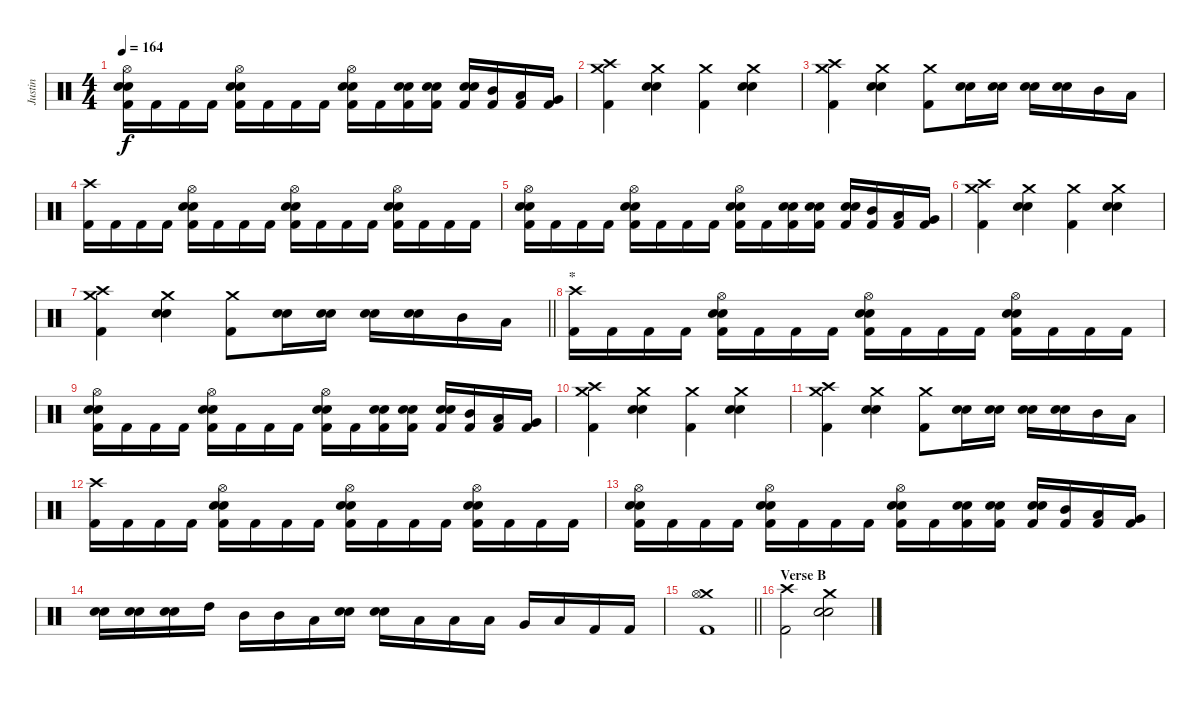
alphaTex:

\track ("Justin" "Justin") {instrument percussion}
\staff {score}
\articulation defaults
\ts (4 4)
\tempo 164
\clef neutral
\ks c
("Hi-Hat (open)" "Electric Snare (hit)" "Snare (hit) 2" "Kick (hit) 2").16{dy f} "Kick (hit) 2".16 "Kick (hit) 2".16 "Kick (hit) 2".16 ("Hi-Hat (open)" "Electric Snare (hit)" "Snare (hit) 2" "Kick (hit) 2").16 "Kick (hit) 2".16 "Kick (hit) 2".16 "Kick (hit) 2".16 ("Hi-Hat (open)" "Electric Snare (hit)" "Snare (hit) 2" "Kick (hit) 2").16 "Kick (hit) 2".16 ("Electric Snare (hit)" "Snare (hit) 2" "Kick (hit) 2").16 ("Electric Snare (hit)" "Snare (hit) 2" "Kick (hit) 2").16 ("Electric Snare (hit)" "Snare (hit) 2" "Kick (hit) 2").16 ("Mid Tom (hit)" "Kick (hit) 2").16 ("Low Tom (hit)" "Kick (hit) 2").16 ("Very Low Tom (hit)" "Kick (hit) 2").16 |
("Crash medium (hit)" "Crash high (hit)" "Kick (hit) 2").4 ("Crash medium (hit)" "Electric Snare (hit)" "Snare (hit) 2").4 ("Crash medium (hit)" "Kick (hit) 2").4 ("Crash medium (hit)" "Electric Snare (hit)" "Snare (hit) 2").4 |
("Crash medium (hit)" "Crash high (hit)" "Kick (hit) 2").4 ("Crash medium (hit)" "Electric Snare (hit)" "Snare (hit) 2").4 ("Crash medium (hit)" "Kick (hit) 2").8 ("Electric Snare (hit)" "Snare (hit) 2").16 ("Electric Snare (hit)" "Snare (hit) 2").16 ("Electric Snare (hit)" "Snare (hit) 2").16 ("Electric Snare (hit)" "Snare (hit) 2").16 "Mid Tom (hit)".16 "Low Tom (hit)".16 |
("Crash high (hit)" "Kick (hit) 2").16 "Kick (hit) 2".16 "Kick (hit) 2".16 "Kick (hit) 2".16 ("Hi-Hat (open)" "Electric Snare (hit)" "Snare (hit) 2" "Kick (hit) 2").16 "Kick (hit) 2".16 "Kick (hit) 2".16 "Kick (hit) 2".16 ("Hi-Hat (open)" "Electric Snare (hit)" "Snare (hit) 2" "Kick (hit) 2").16 "Kick (hit) 2".16 "Kick (hit) 2".16 "Kick (hit) 2".16 ("Hi-Hat (open)" "Electric Snare (hit)" "Snare (hit) 2" "Kick (hit) 2").16 "Kick (hit) 2".16 "Kick (hit) 2".16 "Kick (hit) 2".16 |
("Hi-Hat (open)" "Electric Snare (hit)" "Snare (hit) 2" "Kick (hit) 2").16 "Kick (hit) 2".16 "Kick (hit) 2".16 "Kick (hit) 2".16 ("Hi-Hat (open)" "Electric Snare (hit)" "Snare (hit) 2" "Kick (hit) 2").16 "Kick (hit) 2".16 "Kick (hit) 2".16 "Kick (hit) 2".16 ("Hi-Hat (open)" "Electric Snare (hit)" "Snare (hit) 2" "Kick (hit) 2").16 "Kick (hit) 2".16 ("Electric Snare (hit)" "Snare (hit) 2" "Kick (hit) 2").16 ("Electric Snare (hit)" "Snare (hit) 2" "Kick (hit) 2").16 ("Electric Snare (hit)" "Snare (hit) 2" "Kick (hit) 2").16 ("Mid Tom (hit)" "Kick (hit) 2").16 ("Low Tom (hit)" "Kick (hit) 2").16 ("Very Low Tom (hit)" "Kick (hit) 2").16 |
("Crash medium (hit)" "Crash high (hit)" "Kick (hit) 2").4 ("Crash medium (hit)" "Electric Snare (hit)" "Snare (hit) 2").4 ("Crash medium (hit)" "Kick (hit) 2").4 ("Crash medium (hit)" "Electric Snare (hit)" "Snare (hit) 2").4 |
\barLineRight lightlight
("Crash medium (hit)" "Crash high (hit)" "Kick (hit) 2").4 ("Crash medium (hit)" "Electric Snare (hit)" "Snare (hit) 2").4 ("Crash medium (hit)" "Kick (hit) 2").8 ("Electric Snare (hit)" "Snare (hit) 2").16 ("Electric Snare (hit)" "Snare (hit) 2").16 ("Electric Snare (hit)" "Snare (hit) 2").16 ("Electric Snare (hit)" "Snare (hit) 2").16 "Mid Tom (hit)".16 "Low Tom (hit)".16 |
\section ("" "*")
("Crash high (hit)" "Kick (hit) 2").16 "Kick (hit) 2".16 "Kick (hit) 2".16 "Kick (hit) 2".16 ("Hi-Hat (open)" "Electric Snare (hit)" "Snare (hit) 2" "Kick (hit) 2").16 "Kick (hit) 2".16 "Kick (hit) 2".16 "Kick (hit) 2".16 ("Hi-Hat (open)" "Electric Snare (hit)" "Snare (hit) 2" "Kick (hit) 2").16 "Kick (hit) 2".16 "Kick (hit) 2".16 "Kick (hit) 2".16 ("Hi-Hat (open)" "Electric Snare (hit)" "Snare (hit) 2" "Kick (hit) 2").16 "Kick (hit) 2".16 "Kick (hit) 2".16 "Kick (hit) 2".16 |
("Hi-Hat (open)" "Electric Snare (hit)" "Snare (hit) 2" "Kick (hit) 2").16 "Kick (hit) 2".16 "Kick (hit) 2".16 "Kick (hit) 2".16 ("Hi-Hat (open)" "Electric Snare (hit)" "Snare (hit) 2" "Kick (hit) 2").16 "Kick (hit) 2".16 "Kick (hit) 2".16 "Kick (hit) 2".16 ("Hi-Hat (open)" "Electric Snare (hit)" "Snare (hit) 2" "Kick (hit) 2").16 "Kick (hit) 2".16 ("Electric Snare (hit)" "Snare (hit) 2" "Kick (hit) 2").16 ("Electric Snare (hit)" "Snare (hit) 2" "Kick (hit) 2").16 ("Electric Snare (hit)" "Snare (hit) 2" "Kick (hit) 2").16 ("Mid Tom (hit)" "Kick (hit) 2").16 ("Low Tom (hit)" "Kick (hit) 2").16 ("Very Low Tom (hit)" "Kick (hit) 2").16 |
("Crash medium (hit)" "Crash high (hit)" "Kick (hit) 2").4 ("Crash medium (hit)" "Electric Snare (hit)" "Snare (hit) 2").4 ("Crash medium (hit)" "Kick (hit) 2").4 ("Crash medium (hit)" "Electric Snare (hit)" "Snare (hit) 2").4 |
("Crash medium (hit)" "Crash high (hit)" "Kick (hit) 2").4 ("Crash medium (hit)" "Electric Snare (hit)" "Snare (hit) 2").4 ("Crash medium (hit)" "Kick (hit) 2").8 ("Electric Snare (hit)" "Snare (hit) 2").16 ("Electric Snare (hit)" "Snare (hit) 2").16 ("Electric Snare (hit)" "Snare (hit) 2").16 ("Electric Snare (hit)" "Snare (hit) 2").16 "Mid Tom (hit)".16 "Low Tom (hit)".16 |
("Crash high (hit)" "Kick (hit) 2").16 "Kick (hit) 2".16 "Kick (hit) 2".16 "Kick (hit) 2".16 ("Hi-Hat (open)" "Electric Snare (hit)" "Snare (hit) 2" "Kick (hit) 2").16 "Kick (hit) 2".16 "Kick (hit) 2".16 "Kick (hit) 2".16 ("Hi-Hat (open)" "Electric Snare (hit)" "Snare (hit) 2" "Kick (hit) 2").16 "Kick (hit) 2".16 "Kick (hit) 2".16 "Kick (hit) 2".16 ("Hi-Hat (open)" "Electric Snare (hit)" "Snare (hit) 2" "Kick (hit) 2").16 "Kick (hit) 2".16 "Kick (hit) 2".16 "Kick (hit) 2".16 |
("Hi-Hat (open)" "Electric Snare (hit)" "Snare (hit) 2" "Kick (hit) 2").16 "Kick (hit) 2".16 "Kick (hit) 2".16 "Kick (hit) 2".16 ("Hi-Hat (open)" "Electric Snare (hit)" "Snare (hit) 2" "Kick (hit) 2").16 "Kick (hit) 2".16 "Kick (hit) 2".16 "Kick (hit) 2".16 ("Hi-Hat (open)" "Electric Snare (hit)" "Snare (hit) 2" "Kick (hit) 2").16 "Kick (hit) 2".16 ("Electric Snare (hit)" "Snare (hit) 2" "Kick (hit) 2").16 ("Electric Snare (hit)" "Snare (hit) 2" "Kick (hit) 2").16 ("Electric Snare (hit)" "Snare (hit) 2" "Kick (hit) 2").16 ("Mid Tom (hit)" "Kick (hit) 2").16 ("Low Tom (hit)" "Kick (hit) 2").16 ("Very Low Tom (hit)" "Kick (hit) 2").16 |
("Electric Snare (hit)" "Snare (hit) 2").16 ("Electric Snare (hit)" "Snare (hit) 2").16 ("Electric Snare (hit)" "Snare (hit) 2").16 "High Tom (hit)".16 "Mid Tom (hit)".16 "Mid Tom (hit)".16 "Low Tom (hit)".16 ("Electric Snare (hit)" "Snare (hit) 2").16 ("Electric Snare (hit)" "Snare (hit) 2").16 "Low Tom (hit)".16 "Low Tom (hit)".16 "Low Tom (hit)".16 "Very Low Tom (hit)".16 "Low Floor Tom (hit)".16 "Kick (hit) 2".16 "Kick (hit) 2".16 |
\barLineRight lightlight
("Crash medium (hit)" "Hi-Hat (open)" "Kick (hit) 2").1 |
\section ("" "Verse B")
("Crash high (hit)" "Kick (hit) 2").2 ("Crash medium (hit)" "Electric Snare (hit)" "Snare (hit) 2").2
